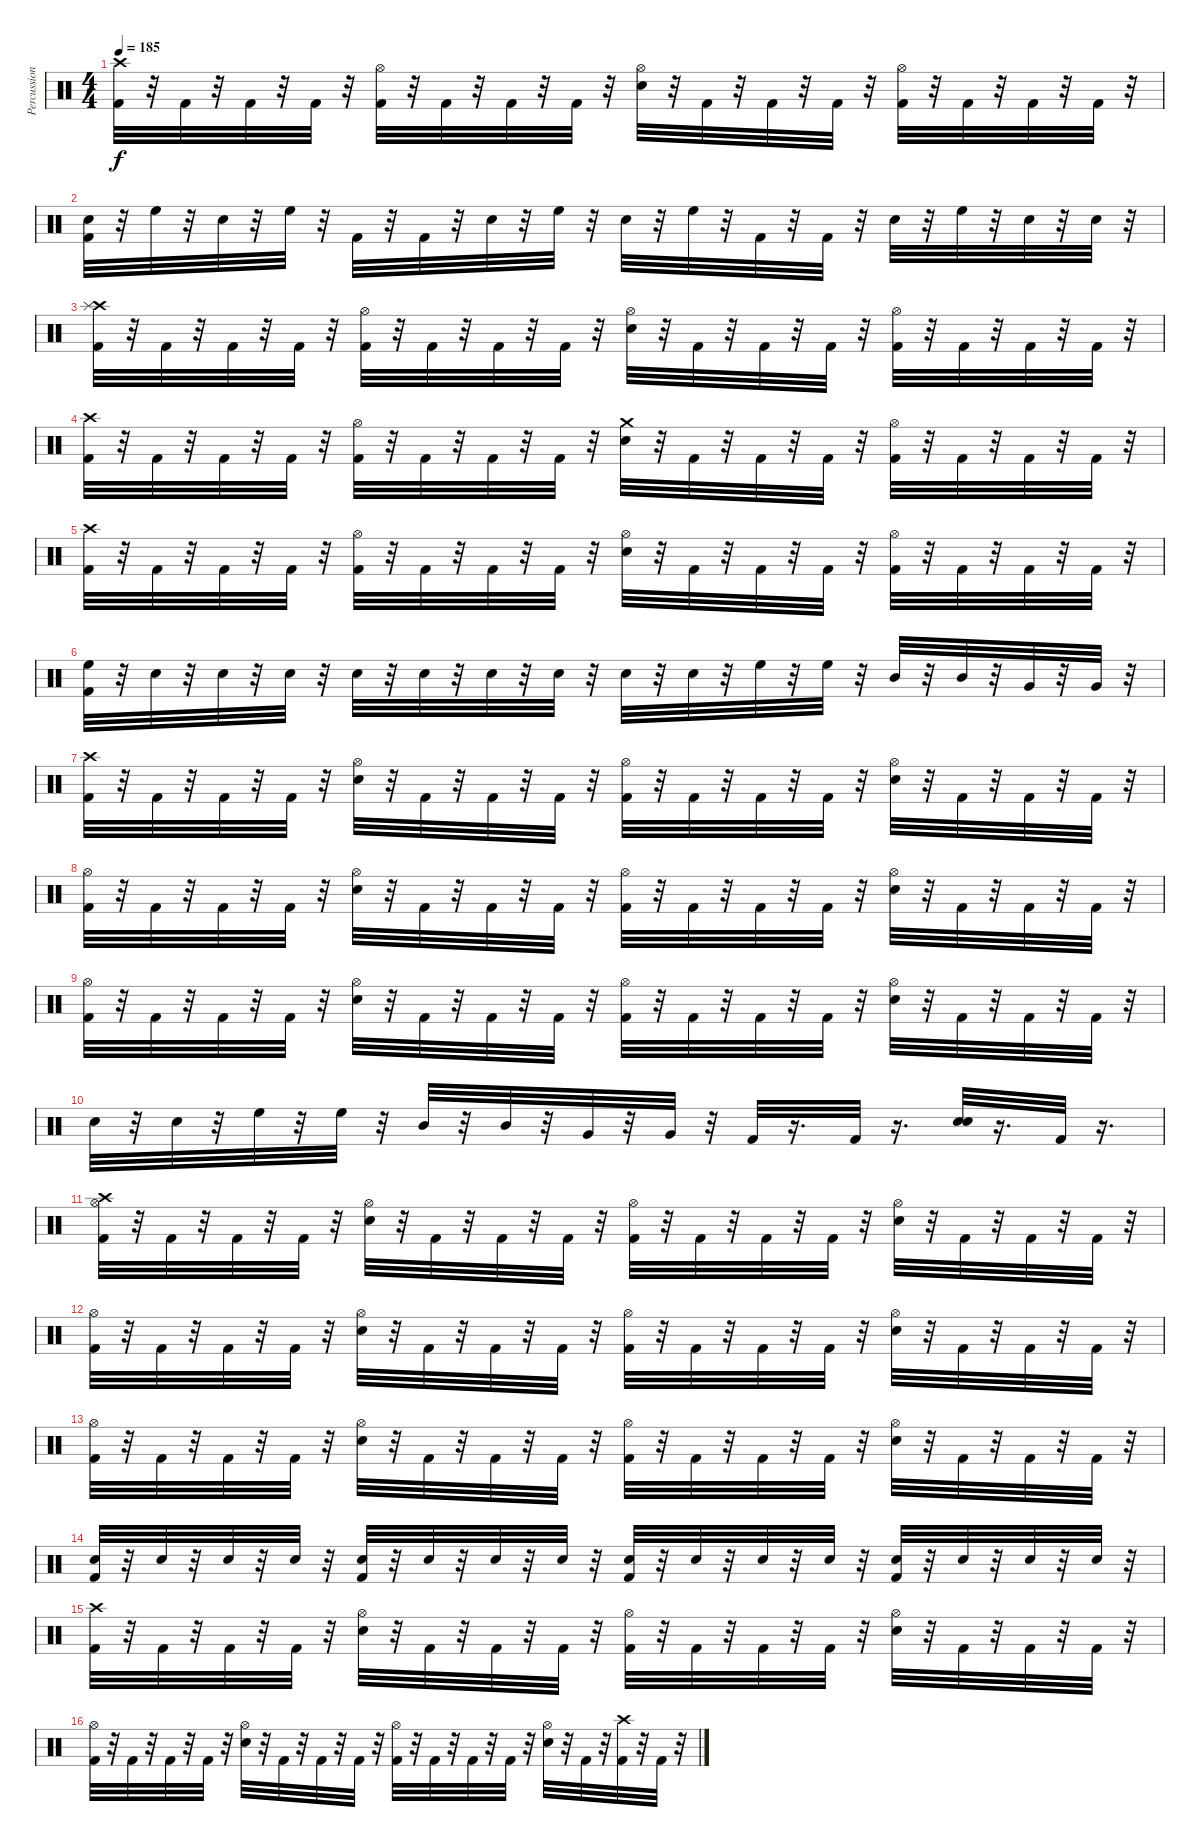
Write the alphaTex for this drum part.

\track ("Percussion" "Percussion") {instrument percussion}
\staff {score}
\articulation defaults
\ts (4 4)
\tempo 185
\clef neutral
\ks c
("Kick (hit) 2" "Crash high (hit)").32{dy f} r.32 "Kick (hit) 2".32 r.32 "Kick (hit) 2".32 r.32 "Kick (hit) 2".32 r.32 ("Kick (hit) 2" "Hi-Hat (open)").32 r.32 "Kick (hit) 2".32 r.32 "Kick (hit) 2".32 r.32 "Kick (hit) 2".32 r.32 ("Snare (hit) 2" "Hi-Hat (open)").32 r.32 "Kick (hit) 2".32 r.32 "Kick (hit) 2".32 r.32 "Kick (hit) 2".32 r.32 ("Kick (hit) 2" "Hi-Hat (open)").32 r.32 "Kick (hit) 2".32 r.32 "Kick (hit) 2".32 r.32 "Kick (hit) 2".32 r.32 |
("Kick (hit) 2" "Snare (hit) 2").32 r.32 "High Floor Tom (hit)".32 r.32 "Snare (hit) 2".32 r.32 "High Floor Tom (hit)".32 r.32 "Kick (hit) 2".32 r.32 "Kick (hit) 2".32 r.32 "Snare (hit) 2".32 r.32 "High Floor Tom (hit)".32 r.32 "Snare (hit) 2".32 r.32 "High Floor Tom (hit)".32 r.32 "Kick (hit) 2".32 r.32 "Kick (hit) 2".32 r.32 "Snare (hit) 2".32 r.32 "High Floor Tom (hit)".32 r.32 "Snare (hit) 2".32 r.32 "Snare (hit) 2".32 r.32 |
("Kick (hit) 2" "Crash high (hit)" "Splash (hit)").32 r.32 "Kick (hit) 2".32 r.32 "Kick (hit) 2".32 r.32 "Kick (hit) 2".32 r.32 ("Kick (hit) 2" "Hi-Hat (open)").32 r.32 "Kick (hit) 2".32 r.32 "Kick (hit) 2".32 r.32 "Kick (hit) 2".32 r.32 ("Snare (hit) 2" "Hi-Hat (open)").32 r.32 "Kick (hit) 2".32 r.32 "Kick (hit) 2".32 r.32 "Kick (hit) 2".32 r.32 ("Kick (hit) 2" "Hi-Hat (open)").32 r.32 "Kick (hit) 2".32 r.32 "Kick (hit) 2".32 r.32 "Kick (hit) 2".32 r.32 |
("Kick (hit) 2" "Crash high (hit)").32 r.32 "Kick (hit) 2".32 r.32 "Kick (hit) 2".32 r.32 "Kick (hit) 2".32 r.32 ("Kick (hit) 2" "Hi-Hat (open)").32 r.32 "Kick (hit) 2".32 r.32 "Kick (hit) 2".32 r.32 "Kick (hit) 2".32 r.32 ("Snare (hit) 2" "Crash medium (hit)").32 r.32 "Kick (hit) 2".32 r.32 "Kick (hit) 2".32 r.32 "Kick (hit) 2".32 r.32 ("Kick (hit) 2" "Hi-Hat (open)").32 r.32 "Kick (hit) 2".32 r.32 "Kick (hit) 2".32 r.32 "Kick (hit) 2".32 r.32 |
("Kick (hit) 2" "Crash high (hit)").32 r.32 "Kick (hit) 2".32 r.32 "Kick (hit) 2".32 r.32 "Kick (hit) 2".32 r.32 ("Kick (hit) 2" "Hi-Hat (open)").32 r.32 "Kick (hit) 2".32 r.32 "Kick (hit) 2".32 r.32 "Kick (hit) 2".32 r.32 ("Snare (hit) 2" "Hi-Hat (open)").32 r.32 "Kick (hit) 2".32 r.32 "Kick (hit) 2".32 r.32 "Kick (hit) 2".32 r.32 ("Kick (hit) 2" "Hi-Hat (open)").32 r.32 "Kick (hit) 2".32 r.32 "Kick (hit) 2".32 r.32 "Kick (hit) 2".32 r.32 |
("Kick (hit) 2" "High Floor Tom (hit)").32 r.32 "Snare (hit) 2".32 r.32 "Snare (hit) 2".32 r.32 "Snare (hit) 2".32 r.32 "Snare (hit) 2".32 r.32 "Snare (hit) 2".32 r.32 "Snare (hit) 2".32 r.32 "Snare (hit) 2".32 r.32 "Snare (hit) 2".32 r.32 "Snare (hit) 2".32 r.32 "High Floor Tom (hit)".32 r.32 "High Floor Tom (hit)".32 r.32 "Mid Tom (hit)".32 r.32 "Mid Tom (hit)".32 r.32 "Very Low Tom (hit)".32 r.32 "Very Low Tom (hit)".32 r.32 |
("Kick (hit) 2" "Crash high (hit)").32 r.32 "Kick (hit) 2".32 r.32 "Kick (hit) 2".32 r.32 "Kick (hit) 2".32 r.32 ("Snare (hit) 2" "Hi-Hat (open)").32 r.32 "Kick (hit) 2".32 r.32 "Kick (hit) 2".32 r.32 "Kick (hit) 2".32 r.32 ("Kick (hit) 2" "Hi-Hat (open)").32 r.32 "Kick (hit) 2".32 r.32 "Kick (hit) 2".32 r.32 "Kick (hit) 2".32 r.32 ("Snare (hit) 2" "Hi-Hat (open)").32 r.32 "Kick (hit) 2".32 r.32 "Kick (hit) 2".32 r.32 "Kick (hit) 2".32 r.32 |
("Kick (hit) 2" "Hi-Hat (open)").32 r.32 "Kick (hit) 2".32 r.32 "Kick (hit) 2".32 r.32 "Kick (hit) 2".32 r.32 ("Snare (hit) 2" "Hi-Hat (open)").32 r.32 "Kick (hit) 2".32 r.32 "Kick (hit) 2".32 r.32 "Kick (hit) 2".32 r.32 ("Kick (hit) 2" "Hi-Hat (open)").32 r.32 "Kick (hit) 2".32 r.32 "Kick (hit) 2".32 r.32 "Kick (hit) 2".32 r.32 ("Snare (hit) 2" "Hi-Hat (open)").32 r.32 "Kick (hit) 2".32 r.32 "Kick (hit) 2".32 r.32 "Kick (hit) 2".32 r.32 |
("Kick (hit) 2" "Hi-Hat (open)").32 r.32 "Kick (hit) 2".32 r.32 "Kick (hit) 2".32 r.32 "Kick (hit) 2".32 r.32 ("Snare (hit) 2" "Hi-Hat (open)").32 r.32 "Kick (hit) 2".32 r.32 "Kick (hit) 2".32 r.32 "Kick (hit) 2".32 r.32 ("Kick (hit) 2" "Hi-Hat (open)").32 r.32 "Kick (hit) 2".32 r.32 "Kick (hit) 2".32 r.32 "Kick (hit) 2".32 r.32 ("Snare (hit) 2" "Hi-Hat (open)").32 r.32 "Kick (hit) 2".32 r.32 "Kick (hit) 2".32 r.32 "Kick (hit) 2".32 r.32 |
"Snare (hit) 2".32 r.32 "Snare (hit) 2".32 r.32 "High Floor Tom (hit)".32 r.32 "High Floor Tom (hit)".32 r.32 "Mid Tom (hit)".32 r.32 "Mid Tom (hit)".32 r.32 "Very Low Tom (hit)".32 r.32 "Very Low Tom (hit)".32 r.32 "Kick (hit) 2".32 r.16{d} "Kick (hit) 2".32 r.16{d} ("Snare (hit) 2" "Snare (hit) 2").32 r.16{d} "Kick (hit) 2".32 r.16{d} |
("Kick (hit) 2" "Hi-Hat (open)" "Crash high (hit)").32 r.32 "Kick (hit) 2".32 r.32 "Kick (hit) 2".32 r.32 "Kick (hit) 2".32 r.32 ("Snare (hit) 2" "Hi-Hat (open)").32 r.32 "Kick (hit) 2".32 r.32 "Kick (hit) 2".32 r.32 "Kick (hit) 2".32 r.32 ("Kick (hit) 2" "Hi-Hat (open)").32 r.32 "Kick (hit) 2".32 r.32 "Kick (hit) 2".32 r.32 "Kick (hit) 2".32 r.32 ("Snare (hit) 2" "Hi-Hat (open)").32 r.32 "Kick (hit) 2".32 r.32 "Kick (hit) 2".32 r.32 "Kick (hit) 2".32 r.32 |
("Kick (hit) 2" "Hi-Hat (open)").32 r.32 "Kick (hit) 2".32 r.32 "Kick (hit) 2".32 r.32 "Kick (hit) 2".32 r.32 ("Snare (hit) 2" "Hi-Hat (open)").32 r.32 "Kick (hit) 2".32 r.32 "Kick (hit) 2".32 r.32 "Kick (hit) 2".32 r.32 ("Kick (hit) 2" "Hi-Hat (open)").32 r.32 "Kick (hit) 2".32 r.32 "Kick (hit) 2".32 r.32 "Kick (hit) 2".32 r.32 ("Snare (hit) 2" "Hi-Hat (open)").32 r.32 "Kick (hit) 2".32 r.32 "Kick (hit) 2".32 r.32 "Kick (hit) 2".32 r.32 |
("Kick (hit) 2" "Hi-Hat (open)").32 r.32 "Kick (hit) 2".32 r.32 "Kick (hit) 2".32 r.32 "Kick (hit) 2".32 r.32 ("Snare (hit) 2" "Hi-Hat (open)").32 r.32 "Kick (hit) 2".32 r.32 "Kick (hit) 2".32 r.32 "Kick (hit) 2".32 r.32 ("Kick (hit) 2" "Hi-Hat (open)").32 r.32 "Kick (hit) 2".32 r.32 "Kick (hit) 2".32 r.32 "Kick (hit) 2".32 r.32 ("Snare (hit) 2" "Hi-Hat (open)").32 r.32 "Kick (hit) 2".32 r.32 "Kick (hit) 2".32 r.32 "Kick (hit) 2".32 r.32 |
("Kick (hit) 2" "Snare (hit) 2").32 r.32 "Snare (hit) 2".32 r.32 "Snare (hit) 2".32 r.32 "Snare (hit) 2".32 r.32 ("Kick (hit) 2" "Snare (hit) 2").32 r.32 "Snare (hit) 2".32 r.32 "Snare (hit) 2".32 r.32 "Snare (hit) 2".32 r.32 ("Kick (hit) 2" "Snare (hit) 2").32 r.32 "Snare (hit) 2".32 r.32 "Snare (hit) 2".32 r.32 "Snare (hit) 2".32 r.32 ("Kick (hit) 2" "Snare (hit) 2").32 r.32 "Snare (hit) 2".32 r.32 "Snare (hit) 2".32 r.32 "Snare (hit) 2".32 r.32 |
("Kick (hit) 2" "Crash high (hit)").32 r.32 "Kick (hit) 2".32 r.32 "Kick (hit) 2".32 r.32 "Kick (hit) 2".32 r.32 ("Snare (hit) 2" "Hi-Hat (open)").32 r.32 "Kick (hit) 2".32 r.32 "Kick (hit) 2".32 r.32 "Kick (hit) 2".32 r.32 ("Kick (hit) 2" "Hi-Hat (open)").32 r.32 "Kick (hit) 2".32 r.32 "Kick (hit) 2".32 r.32 "Kick (hit) 2".32 r.32 ("Snare (hit) 2" "Hi-Hat (open)").32 r.32 "Kick (hit) 2".32 r.32 "Kick (hit) 2".32 r.32 "Kick (hit) 2".32 r.32 |
("Kick (hit) 2" "Hi-Hat (open)").32 r.32 "Kick (hit) 2".32 r.32 "Kick (hit) 2".32 r.32 "Kick (hit) 2".32 r.32 ("Snare (hit) 2" "Hi-Hat (open)").32 r.32 "Kick (hit) 2".32 r.32 "Kick (hit) 2".32 r.32 "Kick (hit) 2".32 r.32 ("Kick (hit) 2" "Hi-Hat (open)").32 r.32 "Kick (hit) 2".32 r.32 "Kick (hit) 2".32 r.32 "Kick (hit) 2".32 r.32 ("Snare (hit) 2" "Hi-Hat (open)").32 r.32 "Kick (hit) 2".32 r.32 ("Kick (hit) 2" "Crash high (hit)").32 r.32 "Kick (hit) 2".32 r.32
